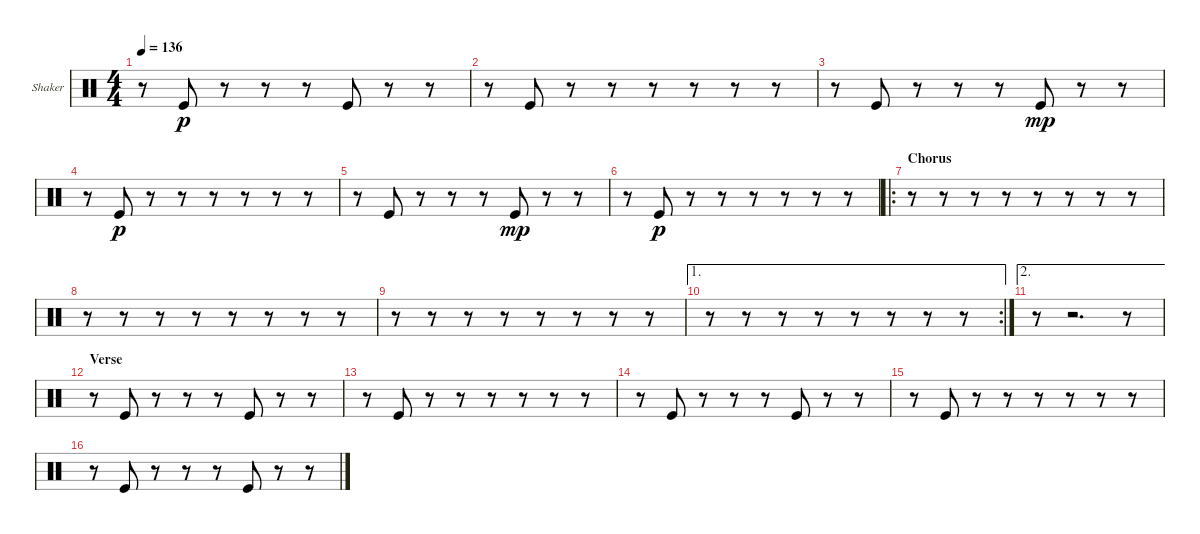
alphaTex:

\bracketExtendMode groupsimilarinstruments
\firstSystemTrackNameOrientation horizontal
\otherSystemsTrackNameOrientation horizontal
\track ("Shaker" "Shaker") {instrument percussion}
\staff {score}
\articulation defaults
\ts (4 4)
\tempo 136
\clef neutral
\ks c
r.8{dy p} "Kick (hit)".8 r.8 r.8 r.8 "Kick (hit)".8 r.8 r.8 |
r.8 "Kick (hit)".8 r.8 r.8 r.8 r.8 r.8 r.8 |
r.8 "Kick (hit)".8 r.8 r.8 r.8 "Kick (hit)".8{dy mp} r.8 r.8 |
r.8 "Kick (hit)".8{dy p} r.8 r.8 r.8 r.8 r.8 r.8 |
r.8 "Kick (hit)".8 r.8 r.8 r.8 "Kick (hit)".8{dy mp} r.8 r.8 |
r.8 "Kick (hit)".8{dy p} r.8 r.8 r.8 r.8 r.8 r.8 |
\ro
\section ("" "Chorus")
r.8 r.8 r.8 r.8 r.8 r.8 r.8 r.8 |
r.8 r.8 r.8 r.8 r.8 r.8 r.8 r.8 |
r.8 r.8 r.8 r.8 r.8 r.8 r.8 r.8 |
\ae 1
\rc 2
r.8 r.8 r.8 r.8 r.8 r.8 r.8 r.8 |
\ae 2
r.8 r.2{d} r.8 |
\section ("" "Verse")
r.8 "Kick (hit)".8 r.8 r.8 r.8 "Kick (hit)".8 r.8 r.8 |
r.8 "Kick (hit)".8 r.8 r.8 r.8 r.8 r.8 r.8 |
r.8 "Kick (hit)".8 r.8 r.8 r.8 "Kick (hit)".8 r.8 r.8 |
r.8 "Kick (hit)".8 r.8 r.8 r.8 r.8 r.8 r.8 |
r.8 "Kick (hit)".8 r.8 r.8 r.8 "Kick (hit)".8 r.8 r.8
